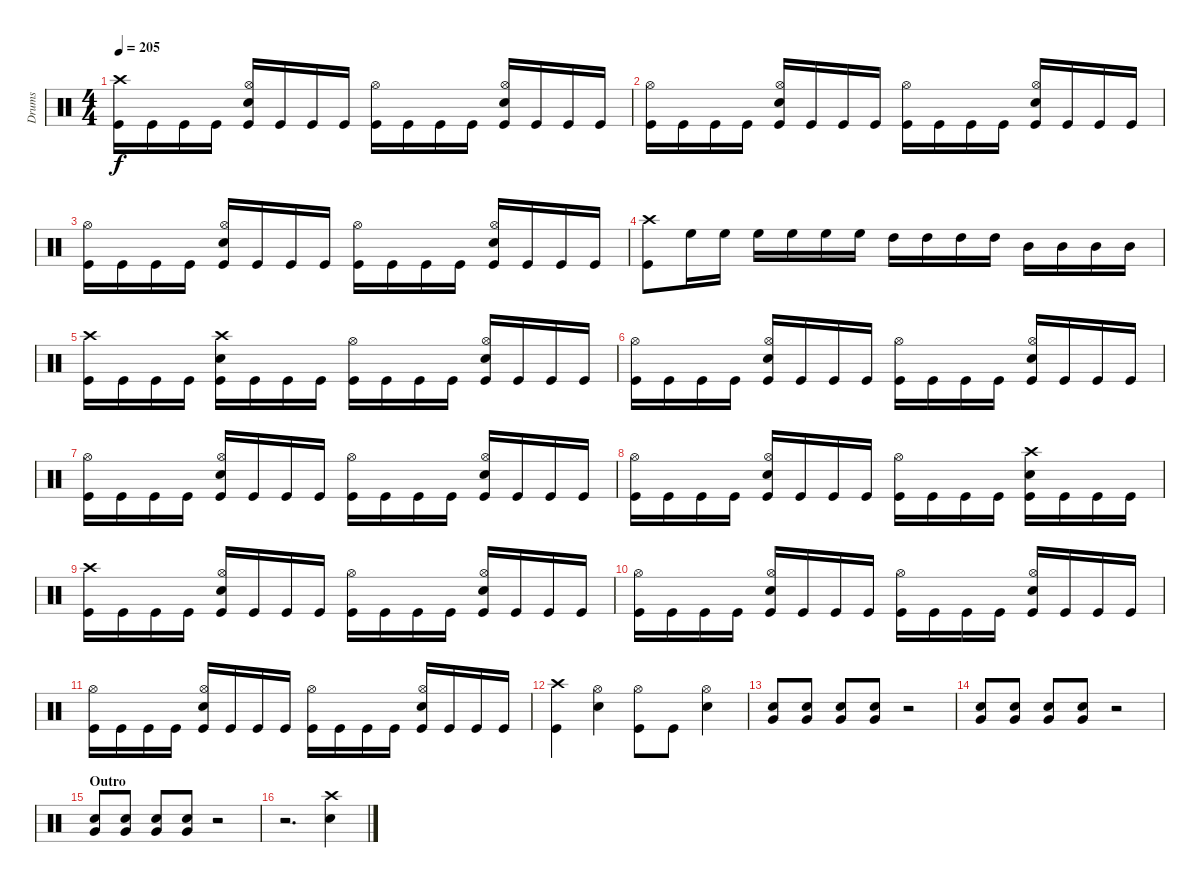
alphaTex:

\track ("Drums" "Drums") {instrument percussion}
\staff {score}
\articulation defaults
\ts (4 4)
\tempo 205
\clef neutral
\ks c
("Crash high (hit)" "Kick (hit)").16{dy f} "Kick (hit)".16 "Kick (hit)".16 "Kick (hit)".16 ("Hi-Hat (open)" "Snare (hit) 2" "Kick (hit)").16 "Kick (hit)".16 "Kick (hit)".16 "Kick (hit)".16 ("Hi-Hat (open)" "Kick (hit)").16 "Kick (hit)".16 "Kick (hit)".16 "Kick (hit)".16 ("Hi-Hat (open)" "Snare (hit) 2" "Kick (hit)").16 "Kick (hit)".16 "Kick (hit)".16 "Kick (hit)".16 |
("Hi-Hat (open)" "Kick (hit)").16 "Kick (hit)".16 "Kick (hit)".16 "Kick (hit)".16 ("Hi-Hat (open)" "Snare (hit) 2" "Kick (hit)").16 "Kick (hit)".16 "Kick (hit)".16 "Kick (hit)".16 ("Hi-Hat (open)" "Kick (hit)").16 "Kick (hit)".16 "Kick (hit)".16 "Kick (hit)".16 ("Hi-Hat (open)" "Snare (hit) 2" "Kick (hit)").16 "Kick (hit)".16 "Kick (hit)".16 "Kick (hit)".16 |
("Hi-Hat (open)" "Kick (hit)").16 "Kick (hit)".16 "Kick (hit)".16 "Kick (hit)".16 ("Hi-Hat (open)" "Snare (hit) 2" "Kick (hit)").16 "Kick (hit)".16 "Kick (hit)".16 "Kick (hit)".16 ("Hi-Hat (open)" "Kick (hit)").16 "Kick (hit)".16 "Kick (hit)".16 "Kick (hit)".16 ("Hi-Hat (open)" "Snare (hit) 2" "Kick (hit)").16 "Kick (hit)".16 "Kick (hit)".16 "Kick (hit)".16 |
("Crash high (hit)" "Kick (hit)").8 "High Floor Tom (hit)".16 "High Floor Tom (hit)".16 "High Floor Tom (hit)".16 "High Floor Tom (hit)".16 "High Floor Tom (hit)".16 "High Floor Tom (hit)".16 "High Tom (hit)".16 "High Tom (hit)".16 "High Tom (hit)".16 "High Tom (hit)".16 "Mid Tom (hit)".16 "Mid Tom (hit)".16 "Mid Tom (hit)".16 "Mid Tom (hit)".16 |
("Crash high (hit)" "Kick (hit)").16 "Kick (hit)".16 "Kick (hit)".16 "Kick (hit)".16 ("Crash high (hit)" "Snare (hit) 2" "Kick (hit)").16 "Kick (hit)".16 "Kick (hit)".16 "Kick (hit)".16 ("Hi-Hat (open)" "Kick (hit)").16 "Kick (hit)".16 "Kick (hit)".16 "Kick (hit)".16 ("Hi-Hat (open)" "Snare (hit) 2" "Kick (hit)").16 "Kick (hit)".16 "Kick (hit)".16 "Kick (hit)".16 |
("Hi-Hat (open)" "Kick (hit)").16 "Kick (hit)".16 "Kick (hit)".16 "Kick (hit)".16 ("Hi-Hat (open)" "Snare (hit) 2" "Kick (hit)").16 "Kick (hit)".16 "Kick (hit)".16 "Kick (hit)".16 ("Hi-Hat (open)" "Kick (hit)").16 "Kick (hit)".16 "Kick (hit)".16 "Kick (hit)".16 ("Hi-Hat (open)" "Snare (hit) 2" "Kick (hit)").16 "Kick (hit)".16 "Kick (hit)".16 "Kick (hit)".16 |
("Hi-Hat (open)" "Kick (hit)").16 "Kick (hit)".16 "Kick (hit)".16 "Kick (hit)".16 ("Hi-Hat (open)" "Snare (hit) 2" "Kick (hit)").16 "Kick (hit)".16 "Kick (hit)".16 "Kick (hit)".16 ("Hi-Hat (open)" "Kick (hit)").16 "Kick (hit)".16 "Kick (hit)".16 "Kick (hit)".16 ("Hi-Hat (open)" "Snare (hit) 2" "Kick (hit)").16 "Kick (hit)".16 "Kick (hit)".16 "Kick (hit)".16 |
("Hi-Hat (open)" "Kick (hit)").16 "Kick (hit)".16 "Kick (hit)".16 "Kick (hit)".16 ("Hi-Hat (open)" "Snare (hit) 2" "Kick (hit)").16 "Kick (hit)".16 "Kick (hit)".16 "Kick (hit)".16 ("Hi-Hat (open)" "Kick (hit)").16 "Kick (hit)".16 "Kick (hit)".16 "Kick (hit)".16 ("Crash high (hit)" "Snare (hit) 2" "Kick (hit)").16 "Kick (hit)".16 "Kick (hit)".16 "Kick (hit)".16 |
("Crash high (hit)" "Kick (hit)").16 "Kick (hit)".16 "Kick (hit)".16 "Kick (hit)".16 ("Hi-Hat (open)" "Snare (hit) 2" "Kick (hit)").16 "Kick (hit)".16 "Kick (hit)".16 "Kick (hit)".16 ("Hi-Hat (open)" "Kick (hit)").16 "Kick (hit)".16 "Kick (hit)".16 "Kick (hit)".16 ("Hi-Hat (open)" "Snare (hit) 2" "Kick (hit)").16 "Kick (hit)".16 "Kick (hit)".16 "Kick (hit)".16 |
("Hi-Hat (open)" "Kick (hit)").16 "Kick (hit)".16 "Kick (hit)".16 "Kick (hit)".16 ("Hi-Hat (open)" "Snare (hit) 2" "Kick (hit)").16 "Kick (hit)".16 "Kick (hit)".16 "Kick (hit)".16 ("Hi-Hat (open)" "Kick (hit)").16 "Kick (hit)".16 "Kick (hit)".16 "Kick (hit)".16 ("Hi-Hat (open)" "Snare (hit) 2" "Kick (hit)").16 "Kick (hit)".16 "Kick (hit)".16 "Kick (hit)".16 |
("Hi-Hat (open)" "Kick (hit)").16 "Kick (hit)".16 "Kick (hit)".16 "Kick (hit)".16 ("Hi-Hat (open)" "Snare (hit) 2" "Kick (hit)").16 "Kick (hit)".16 "Kick (hit)".16 "Kick (hit)".16 ("Hi-Hat (open)" "Kick (hit)").16 "Kick (hit)".16 "Kick (hit)".16 "Kick (hit)".16 ("Hi-Hat (open)" "Snare (hit) 2" "Kick (hit)").16 "Kick (hit)".16 "Kick (hit)".16 "Kick (hit)".16 |
("Crash high (hit)" "Kick (hit)").4 ("Hi-Hat (open)" "Snare (hit) 2").4 ("Hi-Hat (open)" "Kick (hit)").8 "Kick (hit)".8 ("Hi-Hat (open)" "Snare (hit) 2").4 |
("Snare (hit) 2" "Very Low Tom (hit)").8 ("Snare (hit) 2" "Very Low Tom (hit)").8 ("Snare (hit) 2" "Very Low Tom (hit)").8 ("Snare (hit) 2" "Very Low Tom (hit)").8 r.2 |
("Snare (hit) 2" "Very Low Tom (hit)").8 ("Snare (hit) 2" "Very Low Tom (hit)").8 ("Snare (hit) 2" "Very Low Tom (hit)").8 ("Snare (hit) 2" "Very Low Tom (hit)").8 r.2 |
\section ("" "Outro")
("Snare (hit) 2" "Very Low Tom (hit)").8 ("Snare (hit) 2" "Very Low Tom (hit)").8 ("Snare (hit) 2" "Very Low Tom (hit)").8 ("Snare (hit) 2" "Very Low Tom (hit)").8 r.2 |
r.2{d} ("Crash high (hit)" "Snare (hit) 2").4
